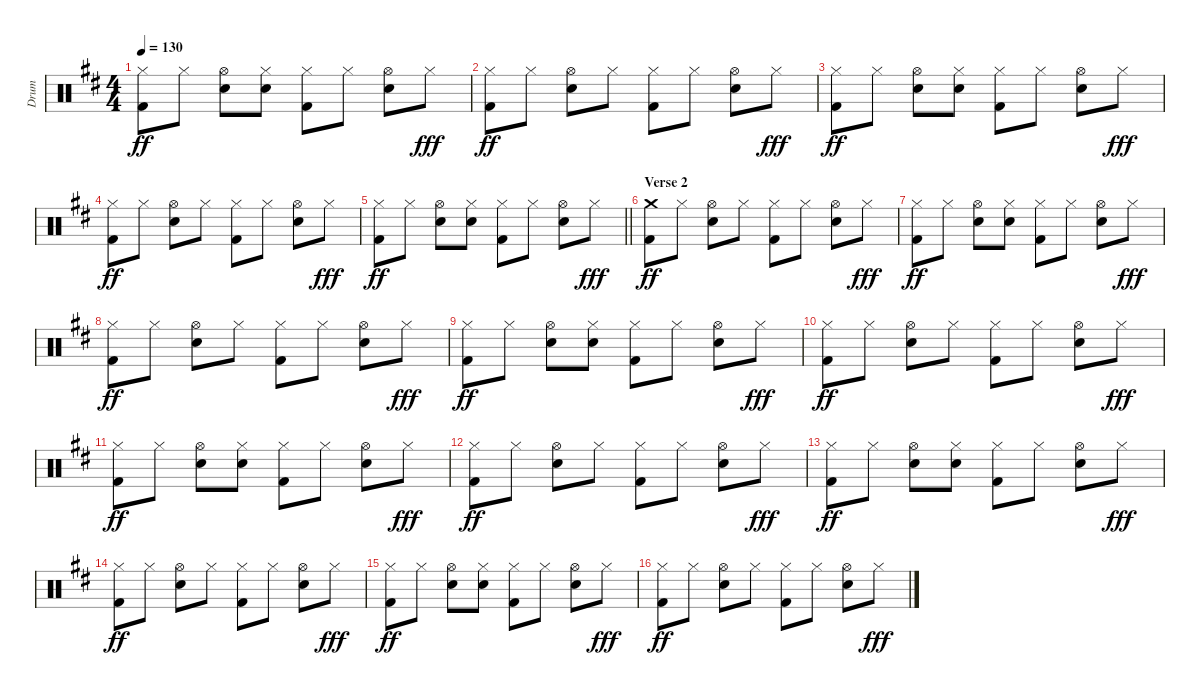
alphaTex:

\track ("Drum" "Drum") {instrument percussion}
\staff {score}
\articulation defaults
\ts (4 4)
\tempo 130
\clef neutral
\ks d
("Hi-Hat (closed)" "Kick (hit) 2").8{dy ff} "Hi-Hat (closed)".8 ("Hi-Hat (open)" "Electric Snare (hit)").8 ("Hi-Hat (closed)" "Electric Snare (hit)").8 ("Hi-Hat (closed)" "Kick (hit) 2").8 "Hi-Hat (closed)".8 ("Hi-Hat (open)" "Electric Snare (hit)").8 "Hi-Hat (closed)".8{dy fff} |
("Hi-Hat (closed)" "Kick (hit) 2").8{dy ff} "Hi-Hat (closed)".8 ("Hi-Hat (open)" "Electric Snare (hit)").8 "Hi-Hat (closed)".8 ("Hi-Hat (closed)" "Kick (hit) 2").8 "Hi-Hat (closed)".8 ("Hi-Hat (open)" "Electric Snare (hit)").8 "Hi-Hat (closed)".8{dy fff} |
("Hi-Hat (closed)" "Kick (hit) 2").8{dy ff} "Hi-Hat (closed)".8 ("Hi-Hat (open)" "Electric Snare (hit)").8 ("Hi-Hat (closed)" "Electric Snare (hit)").8 ("Hi-Hat (closed)" "Kick (hit) 2").8 "Hi-Hat (closed)".8 ("Hi-Hat (open)" "Electric Snare (hit)").8 "Hi-Hat (closed)".8{dy fff} |
("Hi-Hat (closed)" "Kick (hit) 2").8{dy ff} "Hi-Hat (closed)".8 ("Hi-Hat (open)" "Electric Snare (hit)").8 "Hi-Hat (closed)".8 ("Hi-Hat (closed)" "Kick (hit) 2").8 "Hi-Hat (closed)".8 ("Hi-Hat (open)" "Electric Snare (hit)").8 "Hi-Hat (closed)".8{dy fff} |
\barLineRight lightlight
("Hi-Hat (closed)" "Kick (hit) 2").8{dy ff} "Hi-Hat (closed)".8 ("Hi-Hat (open)" "Electric Snare (hit)").8 ("Hi-Hat (closed)" "Electric Snare (hit)").8 ("Hi-Hat (closed)" "Kick (hit) 2").8 "Hi-Hat (closed)".8 ("Hi-Hat (open)" "Electric Snare (hit)").8 "Hi-Hat (closed)".8{dy fff} |
\section ("" "Verse 2")
("Crash medium (hit)" "Kick (hit) 2").8{dy ff} "Hi-Hat (closed)".8 ("Hi-Hat (open)" "Electric Snare (hit)").8 "Hi-Hat (closed)".8 ("Hi-Hat (closed)" "Kick (hit) 2").8 "Hi-Hat (closed)".8 ("Hi-Hat (open)" "Electric Snare (hit)").8 "Hi-Hat (closed)".8{dy fff} |
("Hi-Hat (closed)" "Kick (hit) 2").8{dy ff} "Hi-Hat (closed)".8 ("Hi-Hat (open)" "Electric Snare (hit)").8 ("Hi-Hat (closed)" "Electric Snare (hit)").8 ("Hi-Hat (closed)" "Kick (hit) 2").8 "Hi-Hat (closed)".8 ("Hi-Hat (open)" "Electric Snare (hit)").8 "Hi-Hat (closed)".8{dy fff} |
("Hi-Hat (closed)" "Kick (hit) 2").8{dy ff} "Hi-Hat (closed)".8 ("Hi-Hat (open)" "Electric Snare (hit)").8 "Hi-Hat (closed)".8 ("Hi-Hat (closed)" "Kick (hit) 2").8 "Hi-Hat (closed)".8 ("Hi-Hat (open)" "Electric Snare (hit)").8 "Hi-Hat (closed)".8{dy fff} |
("Hi-Hat (closed)" "Kick (hit) 2").8{dy ff} "Hi-Hat (closed)".8 ("Hi-Hat (open)" "Electric Snare (hit)").8 ("Hi-Hat (closed)" "Electric Snare (hit)").8 ("Hi-Hat (closed)" "Kick (hit) 2").8 "Hi-Hat (closed)".8 ("Hi-Hat (open)" "Electric Snare (hit)").8 "Hi-Hat (closed)".8{dy fff} |
("Hi-Hat (closed)" "Kick (hit) 2").8{dy ff} "Hi-Hat (closed)".8 ("Hi-Hat (open)" "Electric Snare (hit)").8 "Hi-Hat (closed)".8 ("Hi-Hat (closed)" "Kick (hit) 2").8 "Hi-Hat (closed)".8 ("Hi-Hat (open)" "Electric Snare (hit)").8 "Hi-Hat (closed)".8{dy fff} |
("Hi-Hat (closed)" "Kick (hit) 2").8{dy ff} "Hi-Hat (closed)".8 ("Hi-Hat (open)" "Electric Snare (hit)").8 ("Hi-Hat (closed)" "Electric Snare (hit)").8 ("Hi-Hat (closed)" "Kick (hit) 2").8 "Hi-Hat (closed)".8 ("Hi-Hat (open)" "Electric Snare (hit)").8 "Hi-Hat (closed)".8{dy fff} |
("Hi-Hat (closed)" "Kick (hit) 2").8{dy ff} "Hi-Hat (closed)".8 ("Hi-Hat (open)" "Electric Snare (hit)").8 "Hi-Hat (closed)".8 ("Hi-Hat (closed)" "Kick (hit) 2").8 "Hi-Hat (closed)".8 ("Hi-Hat (open)" "Electric Snare (hit)").8 "Hi-Hat (closed)".8{dy fff} |
("Hi-Hat (closed)" "Kick (hit) 2").8{dy ff} "Hi-Hat (closed)".8 ("Hi-Hat (open)" "Electric Snare (hit)").8 ("Hi-Hat (closed)" "Electric Snare (hit)").8 ("Hi-Hat (closed)" "Kick (hit) 2").8 "Hi-Hat (closed)".8 ("Hi-Hat (open)" "Electric Snare (hit)").8 "Hi-Hat (closed)".8{dy fff} |
("Hi-Hat (closed)" "Kick (hit) 2").8{dy ff} "Hi-Hat (closed)".8 ("Hi-Hat (open)" "Electric Snare (hit)").8 "Hi-Hat (closed)".8 ("Hi-Hat (closed)" "Kick (hit) 2").8 "Hi-Hat (closed)".8 ("Hi-Hat (open)" "Electric Snare (hit)").8 "Hi-Hat (closed)".8{dy fff} |
("Hi-Hat (closed)" "Kick (hit) 2").8{dy ff} "Hi-Hat (closed)".8 ("Hi-Hat (open)" "Electric Snare (hit)").8 ("Hi-Hat (closed)" "Electric Snare (hit)").8 ("Hi-Hat (closed)" "Kick (hit) 2").8 "Hi-Hat (closed)".8 ("Hi-Hat (open)" "Electric Snare (hit)").8 "Hi-Hat (closed)".8{dy fff} |
("Hi-Hat (closed)" "Kick (hit) 2").8{dy ff} "Hi-Hat (closed)".8 ("Hi-Hat (open)" "Electric Snare (hit)").8 "Hi-Hat (closed)".8 ("Hi-Hat (closed)" "Kick (hit) 2").8 "Hi-Hat (closed)".8 ("Hi-Hat (open)" "Electric Snare (hit)").8 "Hi-Hat (closed)".8{dy fff}
